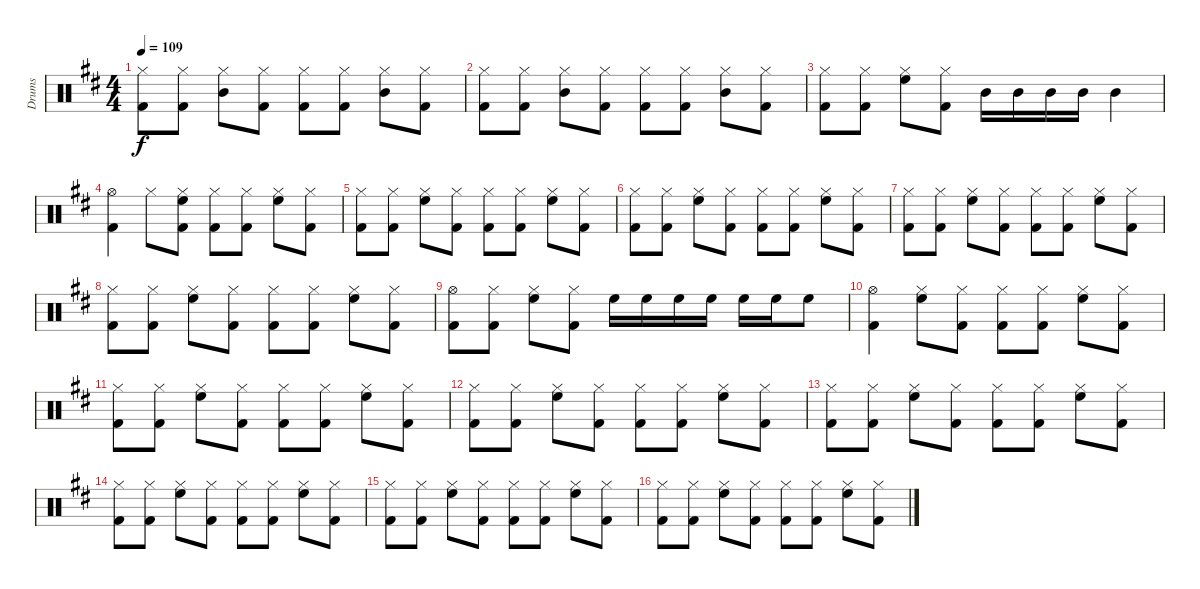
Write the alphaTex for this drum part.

\track ("Drums" "Drums") {instrument percussion}
\staff {score}
\articulation defaults
\ts (4 4)
\tempo 109
\clef neutral
\ks d
("Hi-Hat (closed)" "Kick (hit) 2").8{dy f} ("Hi-Hat (closed)" "Kick (hit) 2").8 ("Hi-Hat (closed)" "Mid Tom (hit)").8 ("Hi-Hat (closed)" "Kick (hit) 2").8 ("Hi-Hat (closed)" "Kick (hit) 2").8 ("Hi-Hat (closed)" "Kick (hit) 2").8 ("Hi-Hat (closed)" "Mid Tom (hit)").8 ("Hi-Hat (closed)" "Kick (hit) 2").8 |
("Hi-Hat (closed)" "Kick (hit) 2").8 ("Hi-Hat (closed)" "Kick (hit) 2").8 ("Hi-Hat (closed)" "Mid Tom (hit)").8 ("Hi-Hat (closed)" "Kick (hit) 2").8 ("Hi-Hat (closed)" "Kick (hit) 2").8 ("Hi-Hat (closed)" "Kick (hit) 2").8 ("Hi-Hat (closed)" "Mid Tom (hit)").8 ("Hi-Hat (closed)" "Kick (hit) 2").8 |
("Hi-Hat (closed)" "Kick (hit) 2").8 ("Hi-Hat (closed)" "Kick (hit) 2").8 ("Hi-Hat (closed)" "High Floor Tom (hit)").8 ("Hi-Hat (closed)" "Kick (hit) 2").8 "Mid Tom (hit)".16 "Mid Tom (hit)".16 "Mid Tom (hit)".16 "Mid Tom (hit)".16 "Mid Tom (hit)".4 |
("Hi-Hat (open)" "Kick (hit) 2").4 "Hi-Hat (closed)".8 ("Hi-Hat (closed)" "High Floor Tom (hit)" "Kick (hit) 2").8 ("Hi-Hat (closed)" "Kick (hit) 2").8 ("Hi-Hat (closed)" "Kick (hit) 2").8 ("Hi-Hat (closed)" "High Floor Tom (hit)").8 ("Hi-Hat (closed)" "Kick (hit) 2").8 |
("Hi-Hat (closed)" "Kick (hit) 2").8 ("Hi-Hat (closed)" "Kick (hit) 2").8 ("Hi-Hat (closed)" "High Floor Tom (hit)").8 ("Hi-Hat (closed)" "Kick (hit) 2").8 ("Hi-Hat (closed)" "Kick (hit) 2").8 ("Hi-Hat (closed)" "Kick (hit) 2").8 ("Hi-Hat (closed)" "High Floor Tom (hit)").8 ("Hi-Hat (closed)" "Kick (hit) 2").8 |
("Hi-Hat (closed)" "Kick (hit) 2").8 ("Hi-Hat (closed)" "Kick (hit) 2").8 ("Hi-Hat (closed)" "High Floor Tom (hit)").8 ("Hi-Hat (closed)" "Kick (hit) 2").8 ("Hi-Hat (closed)" "Kick (hit) 2").8 ("Hi-Hat (closed)" "Kick (hit) 2").8 ("Hi-Hat (closed)" "High Floor Tom (hit)").8 ("Hi-Hat (closed)" "Kick (hit) 2").8 |
("Hi-Hat (closed)" "Kick (hit) 2").8 ("Hi-Hat (closed)" "Kick (hit) 2").8 ("Hi-Hat (closed)" "High Floor Tom (hit)").8 ("Hi-Hat (closed)" "Kick (hit) 2").8 ("Hi-Hat (closed)" "Kick (hit) 2").8 ("Hi-Hat (closed)" "Kick (hit) 2").8 ("Hi-Hat (closed)" "High Floor Tom (hit)").8 ("Hi-Hat (closed)" "Kick (hit) 2").8 |
("Hi-Hat (closed)" "Kick (hit) 2").8 ("Hi-Hat (closed)" "Kick (hit) 2").8 ("Hi-Hat (closed)" "High Floor Tom (hit)").8 ("Hi-Hat (closed)" "Kick (hit) 2").8 ("Hi-Hat (closed)" "Kick (hit) 2").8 ("Hi-Hat (closed)" "Kick (hit) 2").8 ("Hi-Hat (closed)" "High Floor Tom (hit)").8 ("Hi-Hat (closed)" "Kick (hit) 2").8 |
("Hi-Hat (open)" "Kick (hit) 2").8 ("Hi-Hat (closed)" "Kick (hit) 2").8 ("Hi-Hat (closed)" "High Floor Tom (hit)").8 ("Hi-Hat (closed)" "Kick (hit) 2").8 "High Floor Tom (hit)".16 "High Floor Tom (hit)".16 "High Floor Tom (hit)".16 "High Floor Tom (hit)".16 "High Floor Tom (hit)".16 "High Floor Tom (hit)".16 "High Floor Tom (hit)".8 |
("Hi-Hat (open)" "Kick (hit) 2").4 ("Hi-Hat (closed)" "High Floor Tom (hit)").8 ("Hi-Hat (closed)" "Kick (hit) 2").8 ("Hi-Hat (closed)" "Kick (hit) 2").8 ("Hi-Hat (closed)" "Kick (hit) 2").8 ("Hi-Hat (closed)" "High Floor Tom (hit)").8 ("Hi-Hat (closed)" "Kick (hit) 2").8 |
("Hi-Hat (closed)" "Kick (hit) 2").8 ("Hi-Hat (closed)" "Kick (hit) 2").8 ("Hi-Hat (closed)" "High Floor Tom (hit)").8 ("Hi-Hat (closed)" "Kick (hit) 2").8 ("Hi-Hat (closed)" "Kick (hit) 2").8 ("Hi-Hat (closed)" "Kick (hit) 2").8 ("Hi-Hat (closed)" "High Floor Tom (hit)").8 ("Hi-Hat (closed)" "Kick (hit) 2").8 |
("Hi-Hat (closed)" "Kick (hit) 2").8 ("Hi-Hat (closed)" "Kick (hit) 2").8 ("Hi-Hat (closed)" "High Floor Tom (hit)").8 ("Hi-Hat (closed)" "Kick (hit) 2").8 ("Hi-Hat (closed)" "Kick (hit) 2").8 ("Hi-Hat (closed)" "Kick (hit) 2").8 ("Hi-Hat (closed)" "High Floor Tom (hit)").8 ("Hi-Hat (closed)" "Kick (hit) 2").8 |
("Hi-Hat (closed)" "Kick (hit) 2").8 ("Hi-Hat (closed)" "Kick (hit) 2").8 ("Hi-Hat (closed)" "High Floor Tom (hit)").8 ("Hi-Hat (closed)" "Kick (hit) 2").8 ("Hi-Hat (closed)" "Kick (hit) 2").8 ("Hi-Hat (closed)" "Kick (hit) 2").8 ("Hi-Hat (closed)" "High Floor Tom (hit)").8 ("Hi-Hat (closed)" "Kick (hit) 2").8 |
("Hi-Hat (closed)" "Kick (hit) 2").8 ("Hi-Hat (closed)" "Kick (hit) 2").8 ("Hi-Hat (closed)" "High Floor Tom (hit)").8 ("Hi-Hat (closed)" "Kick (hit) 2").8 ("Hi-Hat (closed)" "Kick (hit) 2").8 ("Hi-Hat (closed)" "Kick (hit) 2").8 ("Hi-Hat (closed)" "High Floor Tom (hit)").8 ("Hi-Hat (closed)" "Kick (hit) 2").8 |
("Hi-Hat (closed)" "Kick (hit) 2").8 ("Hi-Hat (closed)" "Kick (hit) 2").8 ("Hi-Hat (closed)" "High Floor Tom (hit)").8 ("Hi-Hat (closed)" "Kick (hit) 2").8 ("Hi-Hat (closed)" "Kick (hit) 2").8 ("Hi-Hat (closed)" "Kick (hit) 2").8 ("Hi-Hat (closed)" "High Floor Tom (hit)").8 ("Hi-Hat (closed)" "Kick (hit) 2").8 |
("Hi-Hat (closed)" "Kick (hit) 2").8 ("Hi-Hat (closed)" "Kick (hit) 2").8 ("Hi-Hat (closed)" "High Floor Tom (hit)").8 ("Hi-Hat (closed)" "Kick (hit) 2").8 ("Hi-Hat (closed)" "Kick (hit) 2").8 ("Hi-Hat (closed)" "Kick (hit) 2").8 ("Hi-Hat (closed)" "High Floor Tom (hit)").8 ("Hi-Hat (closed)" "Kick (hit) 2").8
